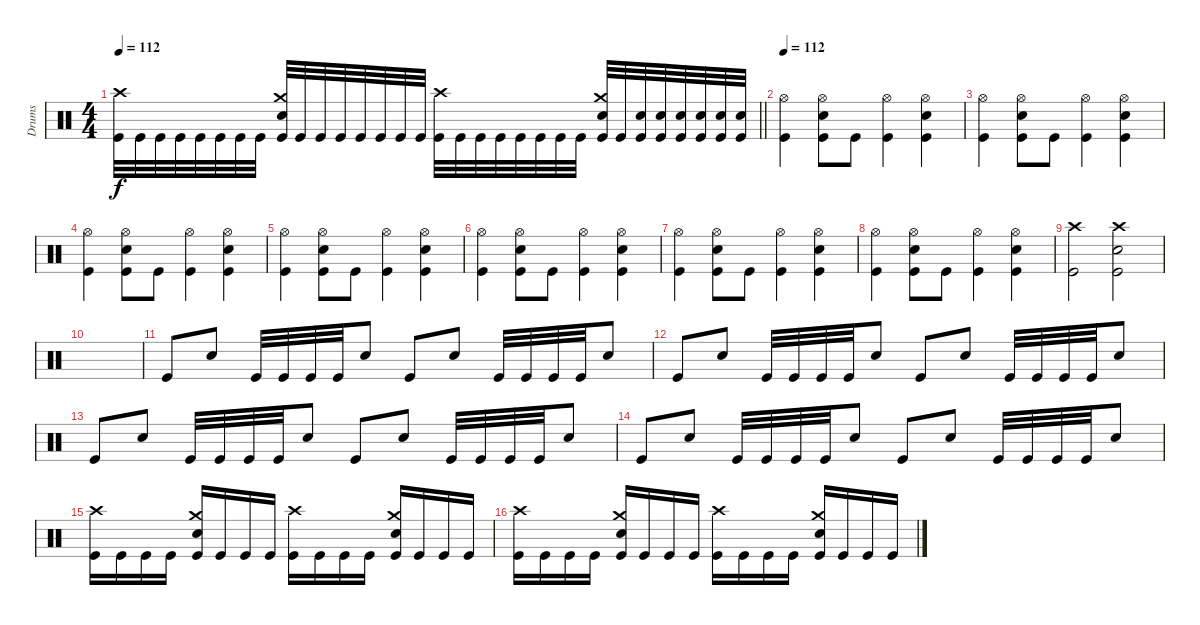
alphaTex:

\track ("Drums" "Drums") {instrument percussion}
\staff
\articulation defaults
\ts (4 4)
\tempo 112
\clef neutral
\barLineRight lightlight
\ks c
("Crash high (hit)" "Kick (hit)").32{dy f} "Kick (hit)".32 "Kick (hit)".32 "Kick (hit)".32 "Kick (hit)".32 "Kick (hit)".32 "Kick (hit)".32 "Kick (hit)".32 ("Crash medium (hit)" "Electric Snare (hit)" "Kick (hit)").32 "Kick (hit)".32 "Kick (hit)".32 "Kick (hit)".32 "Kick (hit)".32 "Kick (hit)".32 "Kick (hit)".32 "Kick (hit)".32 ("Crash high (hit)" "Kick (hit)").32 "Kick (hit)".32 "Kick (hit)".32 "Kick (hit)".32 "Kick (hit)".32 "Kick (hit)".32 "Kick (hit)".32 "Kick (hit)".32 ("Crash medium (hit)" "Electric Snare (hit)" "Kick (hit)").32 "Kick (hit)".32 ("Electric Snare (hit)" "Kick (hit)").32 ("Electric Snare (hit)" "Kick (hit)").32 ("Electric Snare (hit)" "Kick (hit)").32 ("Electric Snare (hit)" "Kick (hit)").32 ("Electric Snare (hit)" "Kick (hit)").32 ("Electric Snare (hit)" "Kick (hit)").32 |
\section ("" "")
\tempo 112
("Hi-Hat (open)" "Kick (hit)").4 ("Hi-Hat (open)" "Electric Snare (hit)" "Kick (hit)").8 "Kick (hit)".8 ("Hi-Hat (open)" "Kick (hit)").4 ("Hi-Hat (open)" "Electric Snare (hit)" "Kick (hit)").4 |
("Hi-Hat (open)" "Kick (hit)").4 ("Hi-Hat (open)" "Electric Snare (hit)" "Kick (hit)").8 "Kick (hit)".8 ("Hi-Hat (open)" "Kick (hit)").4 ("Hi-Hat (open)" "Electric Snare (hit)" "Kick (hit)").4 |
("Hi-Hat (open)" "Kick (hit)").4 ("Hi-Hat (open)" "Electric Snare (hit)" "Kick (hit)").8 "Kick (hit)".8 ("Hi-Hat (open)" "Kick (hit)").4 ("Hi-Hat (open)" "Electric Snare (hit)" "Kick (hit)").4 |
("Hi-Hat (open)" "Kick (hit)").4 ("Hi-Hat (open)" "Electric Snare (hit)" "Kick (hit)").8 "Kick (hit)".8 ("Hi-Hat (open)" "Kick (hit)").4 ("Hi-Hat (open)" "Electric Snare (hit)" "Kick (hit)").4 |
("Hi-Hat (open)" "Kick (hit)").4 ("Hi-Hat (open)" "Electric Snare (hit)" "Kick (hit)").8 "Kick (hit)".8 ("Hi-Hat (open)" "Kick (hit)").4 ("Hi-Hat (open)" "Electric Snare (hit)" "Kick (hit)").4 |
("Hi-Hat (open)" "Kick (hit)").4 ("Hi-Hat (open)" "Electric Snare (hit)" "Kick (hit)").8 "Kick (hit)".8 ("Hi-Hat (open)" "Kick (hit)").4 ("Hi-Hat (open)" "Electric Snare (hit)" "Kick (hit)").4 |
("Hi-Hat (open)" "Kick (hit)").4 ("Hi-Hat (open)" "Electric Snare (hit)" "Kick (hit)").8 "Kick (hit)".8 ("Hi-Hat (open)" "Kick (hit)").4 ("Hi-Hat (open)" "Electric Snare (hit)" "Kick (hit)").4 |
("Crash high (hit)" "Kick (hit)").2 ("Crash high (hit)" "Electric Snare (hit)" "Kick (hit)").2 |
|
"Kick (hit)".8 "Electric Snare (hit)".8 "Kick (hit)".32 "Kick (hit)".32 "Kick (hit)".32 "Kick (hit)".32 "Electric Snare (hit)".8 "Kick (hit)".8 "Electric Snare (hit)".8 "Kick (hit)".32 "Kick (hit)".32 "Kick (hit)".32 "Kick (hit)".32 "Electric Snare (hit)".8 |
"Kick (hit)".8 "Electric Snare (hit)".8 "Kick (hit)".32 "Kick (hit)".32 "Kick (hit)".32 "Kick (hit)".32 "Electric Snare (hit)".8 "Kick (hit)".8 "Electric Snare (hit)".8 "Kick (hit)".32 "Kick (hit)".32 "Kick (hit)".32 "Kick (hit)".32 "Electric Snare (hit)".8 |
"Kick (hit)".8 "Electric Snare (hit)".8 "Kick (hit)".32 "Kick (hit)".32 "Kick (hit)".32 "Kick (hit)".32 "Electric Snare (hit)".8 "Kick (hit)".8 "Electric Snare (hit)".8 "Kick (hit)".32 "Kick (hit)".32 "Kick (hit)".32 "Kick (hit)".32 "Electric Snare (hit)".8 |
"Kick (hit)".8 "Electric Snare (hit)".8 "Kick (hit)".32 "Kick (hit)".32 "Kick (hit)".32 "Kick (hit)".32 "Electric Snare (hit)".8 "Kick (hit)".8 "Electric Snare (hit)".8 "Kick (hit)".32 "Kick (hit)".32 "Kick (hit)".32 "Kick (hit)".32 "Electric Snare (hit)".8 |
("Crash high (hit)" "Kick (hit)").16 "Kick (hit)".16 "Kick (hit)".16 "Kick (hit)".16 ("Crash medium (hit)" "Electric Snare (hit)" "Kick (hit)").16 "Kick (hit)".16 "Kick (hit)".16 "Kick (hit)".16 ("Crash high (hit)" "Kick (hit)").16 "Kick (hit)".16 "Kick (hit)".16 "Kick (hit)".16 ("Crash medium (hit)" "Electric Snare (hit)" "Kick (hit)").16 "Kick (hit)".16 "Kick (hit)".16 "Kick (hit)".16 |
("Crash high (hit)" "Kick (hit)").16 "Kick (hit)".16 "Kick (hit)".16 "Kick (hit)".16 ("Crash medium (hit)" "Electric Snare (hit)" "Kick (hit)").16 "Kick (hit)".16 "Kick (hit)".16 "Kick (hit)".16 ("Crash high (hit)" "Kick (hit)").16 "Kick (hit)".16 "Kick (hit)".16 "Kick (hit)".16 ("Crash medium (hit)" "Electric Snare (hit)" "Kick (hit)").16 "Kick (hit)".16 "Kick (hit)".16 "Kick (hit)".16
